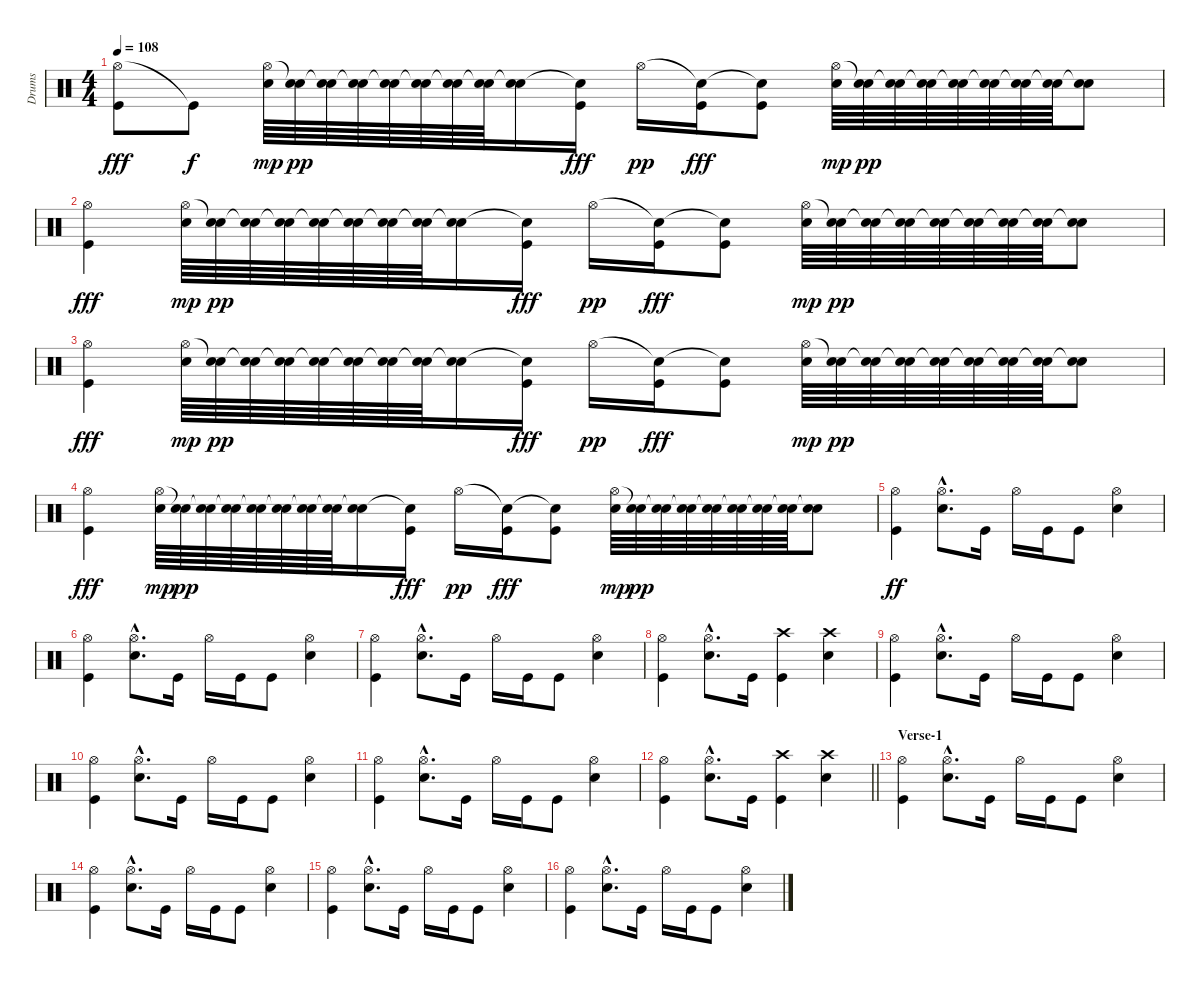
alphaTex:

\track ("Drums" "Drums") {instrument percussion}
\staff {score}
\articulation defaults
\ts (4 4)
\tempo 108
\clef neutral
\ks c
("Hi-Hat (open)" "Kick (hit)").8{dy fff volume 2} "Kick (hit)"{t}.8{dy f volume 13} ("Hi-Hat (open)" "Electric Snare (hit)").64{dy mp} ("Snare (hit)"{t} "Electric Snare (hit)").64{dy pp} ("Snare (hit)"{t} "Electric Snare (hit)").64 ("Snare (hit)"{t} "Electric Snare (hit)").64 ("Snare (hit)"{t} "Electric Snare (hit)").64 ("Snare (hit)"{t} "Electric Snare (hit)").64 ("Snare (hit)"{t} "Electric Snare (hit)").64 ("Snare (hit)"{t} "Electric Snare (hit)").64 ("Snare (hit)"{t} "Electric Snare (hit)").16 ("Snare (hit)"{t} "Kick (hit)").16{dy fff} "Hi-Hat (open)".16{dy pp} ("Snare (hit)"{t} "Kick (hit)").16{dy fff} ("Snare (hit)"{t} "Kick (hit)").8 ("Hi-Hat (open)" "Electric Snare (hit)").64{dy mp} ("Snare (hit)"{t} "Electric Snare (hit)").64{dy pp} ("Snare (hit)"{t} "Electric Snare (hit)").64 ("Snare (hit)"{t} "Electric Snare (hit)").64 ("Snare (hit)"{t} "Electric Snare (hit)").64 ("Snare (hit)"{t} "Electric Snare (hit)").64 ("Snare (hit)"{t} "Electric Snare (hit)").64 ("Snare (hit)"{t} "Electric Snare (hit)").64 ("Snare (hit)"{t} "Electric Snare (hit)").8 |
("Hi-Hat (open)" "Kick (hit)").4{dy fff} ("Hi-Hat (open)" "Electric Snare (hit)").64{dy mp} ("Snare (hit)"{t} "Electric Snare (hit)").64{dy pp} ("Snare (hit)"{t} "Electric Snare (hit)").64 ("Snare (hit)"{t} "Electric Snare (hit)").64 ("Snare (hit)"{t} "Electric Snare (hit)").64 ("Snare (hit)"{t} "Electric Snare (hit)").64 ("Snare (hit)"{t} "Electric Snare (hit)").64 ("Snare (hit)"{t} "Electric Snare (hit)").64 ("Snare (hit)"{t} "Electric Snare (hit)").16 ("Snare (hit)"{t} "Kick (hit)").16{dy fff} "Hi-Hat (open)".16{dy pp} ("Snare (hit)"{t} "Kick (hit)").16{dy fff} ("Snare (hit)"{t} "Kick (hit)").8 ("Hi-Hat (open)" "Electric Snare (hit)").64{dy mp} ("Snare (hit)"{t} "Electric Snare (hit)").64{dy pp} ("Snare (hit)"{t} "Electric Snare (hit)").64 ("Snare (hit)"{t} "Electric Snare (hit)").64 ("Snare (hit)"{t} "Electric Snare (hit)").64 ("Snare (hit)"{t} "Electric Snare (hit)").64 ("Snare (hit)"{t} "Electric Snare (hit)").64 ("Snare (hit)"{t} "Electric Snare (hit)").64 ("Snare (hit)"{t} "Electric Snare (hit)").8 |
("Hi-Hat (open)" "Kick (hit)").4{dy fff} ("Hi-Hat (open)" "Electric Snare (hit)").64{dy mp} ("Snare (hit)"{t} "Electric Snare (hit)").64{dy pp} ("Snare (hit)"{t} "Electric Snare (hit)").64 ("Snare (hit)"{t} "Electric Snare (hit)").64 ("Snare (hit)"{t} "Electric Snare (hit)").64 ("Snare (hit)"{t} "Electric Snare (hit)").64 ("Snare (hit)"{t} "Electric Snare (hit)").64 ("Snare (hit)"{t} "Electric Snare (hit)").64 ("Snare (hit)"{t} "Electric Snare (hit)").16 ("Snare (hit)"{t} "Kick (hit)").16{dy fff} "Hi-Hat (open)".16{dy pp} ("Snare (hit)"{t} "Kick (hit)").16{dy fff} ("Snare (hit)"{t} "Kick (hit)").8 ("Hi-Hat (open)" "Electric Snare (hit)").64{dy mp} ("Snare (hit)"{t} "Electric Snare (hit)").64{dy pp} ("Snare (hit)"{t} "Electric Snare (hit)").64 ("Snare (hit)"{t} "Electric Snare (hit)").64 ("Snare (hit)"{t} "Electric Snare (hit)").64 ("Snare (hit)"{t} "Electric Snare (hit)").64 ("Snare (hit)"{t} "Electric Snare (hit)").64 ("Snare (hit)"{t} "Electric Snare (hit)").64 ("Snare (hit)"{t} "Electric Snare (hit)").8 |
("Hi-Hat (open)" "Kick (hit)").4{dy fff} ("Hi-Hat (open)" "Electric Snare (hit)").64{dy mp} ("Snare (hit)"{t} "Electric Snare (hit)").64{dy pp} ("Snare (hit)"{t} "Electric Snare (hit)").64 ("Snare (hit)"{t} "Electric Snare (hit)").64 ("Snare (hit)"{t} "Electric Snare (hit)").64 ("Snare (hit)"{t} "Electric Snare (hit)").64 ("Snare (hit)"{t} "Electric Snare (hit)").64 ("Snare (hit)"{t} "Electric Snare (hit)").64 ("Snare (hit)"{t} "Electric Snare (hit)").16 ("Snare (hit)"{t} "Kick (hit)").16{dy fff} "Hi-Hat (open)".16{dy pp} ("Snare (hit)"{t} "Kick (hit)").16{dy fff} ("Snare (hit)"{t} "Kick (hit)").8 ("Hi-Hat (open)" "Electric Snare (hit)").64{dy mp} ("Snare (hit)"{t} "Electric Snare (hit)").64{dy pp} ("Snare (hit)"{t} "Electric Snare (hit)").64 ("Snare (hit)"{t} "Electric Snare (hit)").64 ("Snare (hit)"{t} "Electric Snare (hit)").64 ("Snare (hit)"{t} "Electric Snare (hit)").64 ("Snare (hit)"{t} "Electric Snare (hit)").64 ("Snare (hit)"{t} "Electric Snare (hit)").64 ("Snare (hit)"{t} "Electric Snare (hit)").8 |
("Hi-Hat (open)" "Kick (hit)").4{dy ff} ("Hi-Hat (open)"{hac} "Electric Snare (hit)"{hac}).8{d} "Kick (hit)".16 "Hi-Hat (open)".16 "Kick (hit)".16 "Kick (hit)".8 ("Hi-Hat (open)" "Electric Snare (hit)").4 |
("Hi-Hat (open)" "Kick (hit)").4 ("Hi-Hat (open)"{hac} "Electric Snare (hit)"{hac}).8{d} "Kick (hit)".16 "Hi-Hat (open)".16 "Kick (hit)".16 "Kick (hit)".8 ("Hi-Hat (open)" "Electric Snare (hit)").4 |
("Hi-Hat (open)" "Kick (hit)").4 ("Hi-Hat (open)"{hac} "Electric Snare (hit)"{hac}).8{d} "Kick (hit)".16 "Hi-Hat (open)".16 "Kick (hit)".16 "Kick (hit)".8 ("Hi-Hat (open)" "Electric Snare (hit)").4 |
("Hi-Hat (open)" "Kick (hit)").4 ("Hi-Hat (open)"{hac} "Electric Snare (hit)"{hac}).8{d} "Kick (hit)".16 ("Crash high (hit)" "Kick (hit)").4 ("Crash high (hit)" "Electric Snare (hit)").4 |
("Hi-Hat (open)" "Kick (hit)").4 ("Hi-Hat (open)"{hac} "Electric Snare (hit)"{hac}).8{d} "Kick (hit)".16 "Hi-Hat (open)".16 "Kick (hit)".16 "Kick (hit)".8 ("Hi-Hat (open)" "Electric Snare (hit)").4 |
("Hi-Hat (open)" "Kick (hit)").4 ("Hi-Hat (open)"{hac} "Electric Snare (hit)"{hac}).8{d} "Kick (hit)".16 "Hi-Hat (open)".16 "Kick (hit)".16 "Kick (hit)".8 ("Hi-Hat (open)" "Electric Snare (hit)").4 |
("Hi-Hat (open)" "Kick (hit)").4 ("Hi-Hat (open)"{hac} "Electric Snare (hit)"{hac}).8{d} "Kick (hit)".16 "Hi-Hat (open)".16 "Kick (hit)".16 "Kick (hit)".8 ("Hi-Hat (open)" "Electric Snare (hit)").4 |
\barLineRight lightlight
("Hi-Hat (open)" "Kick (hit)").4 ("Hi-Hat (open)"{hac} "Electric Snare (hit)"{hac}).8{d} "Kick (hit)".16 ("Crash high (hit)" "Kick (hit)").4 ("Crash high (hit)" "Electric Snare (hit)").4 |
\section ("" "Verse-1")
("Hi-Hat (open)" "Kick (hit)").4 ("Hi-Hat (open)"{hac} "Electric Snare (hit)"{hac}).8{d} "Kick (hit)".16 "Hi-Hat (open)".16 "Kick (hit)".16 "Kick (hit)".8 ("Hi-Hat (open)" "Electric Snare (hit)").4 |
("Hi-Hat (open)" "Kick (hit)").4 ("Hi-Hat (open)"{hac} "Electric Snare (hit)"{hac}).8{d} "Kick (hit)".16 "Hi-Hat (open)".16 "Kick (hit)".16 "Kick (hit)".8 ("Hi-Hat (open)" "Electric Snare (hit)").4 |
("Hi-Hat (open)" "Kick (hit)").4 ("Hi-Hat (open)"{hac} "Electric Snare (hit)"{hac}).8{d} "Kick (hit)".16 "Hi-Hat (open)".16 "Kick (hit)".16 "Kick (hit)".8 ("Hi-Hat (open)" "Electric Snare (hit)").4 |
("Hi-Hat (open)" "Kick (hit)").4 ("Hi-Hat (open)"{hac} "Electric Snare (hit)"{hac}).8{d} "Kick (hit)".16 "Hi-Hat (open)".16 "Kick (hit)".16 "Kick (hit)".8 ("Hi-Hat (open)" "Electric Snare (hit)").4
